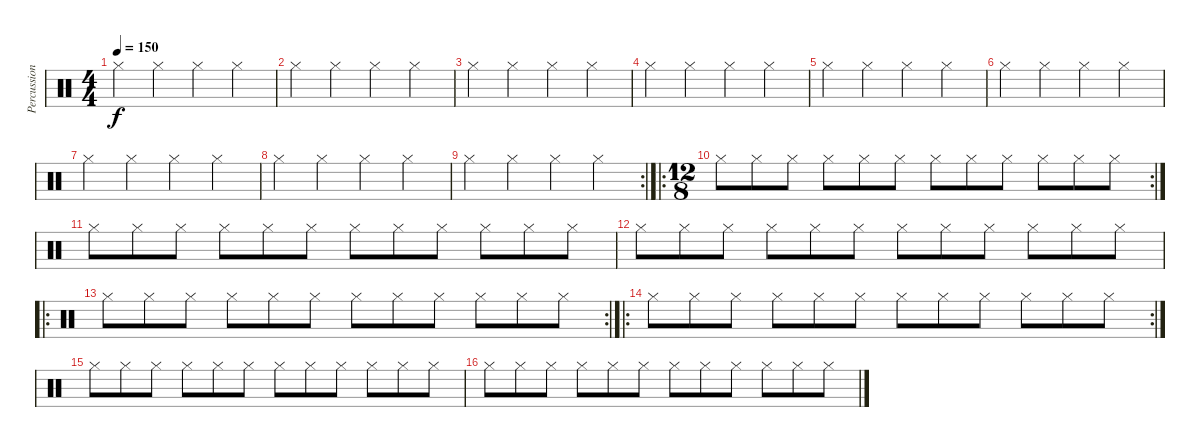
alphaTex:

\track ("Percussioni" "Percussion") {instrument percussion}
\staff {score}
\articulation defaults
\ts (4 4)
\tempo 150
\clef neutral
\ks c "Hi-Hat (closed)".4{dy f} "Hi-Hat (closed)".4 "Hi-Hat (closed)".4 "Hi-Hat (closed)".4
|
"Hi-Hat (closed)".4 "Hi-Hat (closed)".4 "Hi-Hat (closed)".4 "Hi-Hat (closed)".4 |
"Hi-Hat (closed)".4 "Hi-Hat (closed)".4 "Hi-Hat (closed)".4 "Hi-Hat (closed)".4 |
"Hi-Hat (closed)".4 "Hi-Hat (closed)".4 "Hi-Hat (closed)".4 "Hi-Hat (closed)".4 |
"Hi-Hat (closed)".4 "Hi-Hat (closed)".4 "Hi-Hat (closed)".4 "Hi-Hat (closed)".4 |
"Hi-Hat (closed)".4 "Hi-Hat (closed)".4 "Hi-Hat (closed)".4 "Hi-Hat (closed)".4 |
"Hi-Hat (closed)".4 "Hi-Hat (closed)".4 "Hi-Hat (closed)".4 "Hi-Hat (closed)".4 |
"Hi-Hat (closed)".4 "Hi-Hat (closed)".4 "Hi-Hat (closed)".4 "Hi-Hat (closed)".4 |
\rc 2 "Hi-Hat (closed)".4 "Hi-Hat (closed)".4 "Hi-Hat (closed)".4 "Hi-Hat (closed)".4
|
\ro
\rc 2
\ts (12 8)
"Hi-Hat (closed)".8 "Hi-Hat (closed)".8 "Hi-Hat (closed)".8 "Hi-Hat (closed)".8 "Hi-Hat (closed)".8 "Hi-Hat (closed)".8 "Hi-Hat (closed)".8 "Hi-Hat (closed)".8 "Hi-Hat (closed)".8 "Hi-Hat (closed)".8 "Hi-Hat (closed)".8 "Hi-Hat (closed)".8 |
"Hi-Hat (closed)".8 "Hi-Hat (closed)".8 "Hi-Hat (closed)".8 "Hi-Hat (closed)".8 "Hi-Hat (closed)".8 "Hi-Hat (closed)".8 "Hi-Hat (closed)".8 "Hi-Hat (closed)".8 "Hi-Hat (closed)".8 "Hi-Hat (closed)".8 "Hi-Hat (closed)".8 "Hi-Hat (closed)".8 |
"Hi-Hat (closed)".8 "Hi-Hat (closed)".8 "Hi-Hat (closed)".8 "Hi-Hat (closed)".8 "Hi-Hat (closed)".8 "Hi-Hat (closed)".8 "Hi-Hat (closed)".8 "Hi-Hat (closed)".8 "Hi-Hat (closed)".8 "Hi-Hat (closed)".8 "Hi-Hat (closed)".8 "Hi-Hat (closed)".8 |
\ro
\rc 2 "Hi-Hat (closed)".8 "Hi-Hat (closed)".8 "Hi-Hat (closed)".8 "Hi-Hat (closed)".8 "Hi-Hat (closed)".8 "Hi-Hat (closed)".8 "Hi-Hat (closed)".8 "Hi-Hat (closed)".8 "Hi-Hat (closed)".8 "Hi-Hat (closed)".8 "Hi-Hat (closed)".8 "Hi-Hat (closed)".8
|
\ro
\rc 2 "Hi-Hat (closed)".8 "Hi-Hat (closed)".8 "Hi-Hat (closed)".8 "Hi-Hat (closed)".8 "Hi-Hat (closed)".8 "Hi-Hat (closed)".8 "Hi-Hat (closed)".8 "Hi-Hat (closed)".8 "Hi-Hat (closed)".8 "Hi-Hat (closed)".8 "Hi-Hat (closed)".8 "Hi-Hat (closed)".8
|
"Hi-Hat (closed)".8 "Hi-Hat (closed)".8 "Hi-Hat (closed)".8 "Hi-Hat (closed)".8 "Hi-Hat (closed)".8 "Hi-Hat (closed)".8 "Hi-Hat (closed)".8 "Hi-Hat (closed)".8 "Hi-Hat (closed)".8 "Hi-Hat (closed)".8 "Hi-Hat (closed)".8 "Hi-Hat (closed)".8 |
"Hi-Hat (closed)".8 "Hi-Hat (closed)".8 "Hi-Hat (closed)".8 "Hi-Hat (closed)".8 "Hi-Hat (closed)".8 "Hi-Hat (closed)".8 "Hi-Hat (closed)".8 "Hi-Hat (closed)".8 "Hi-Hat (closed)".8 "Hi-Hat (closed)".8 "Hi-Hat (closed)".8 "Hi-Hat (closed)".8
